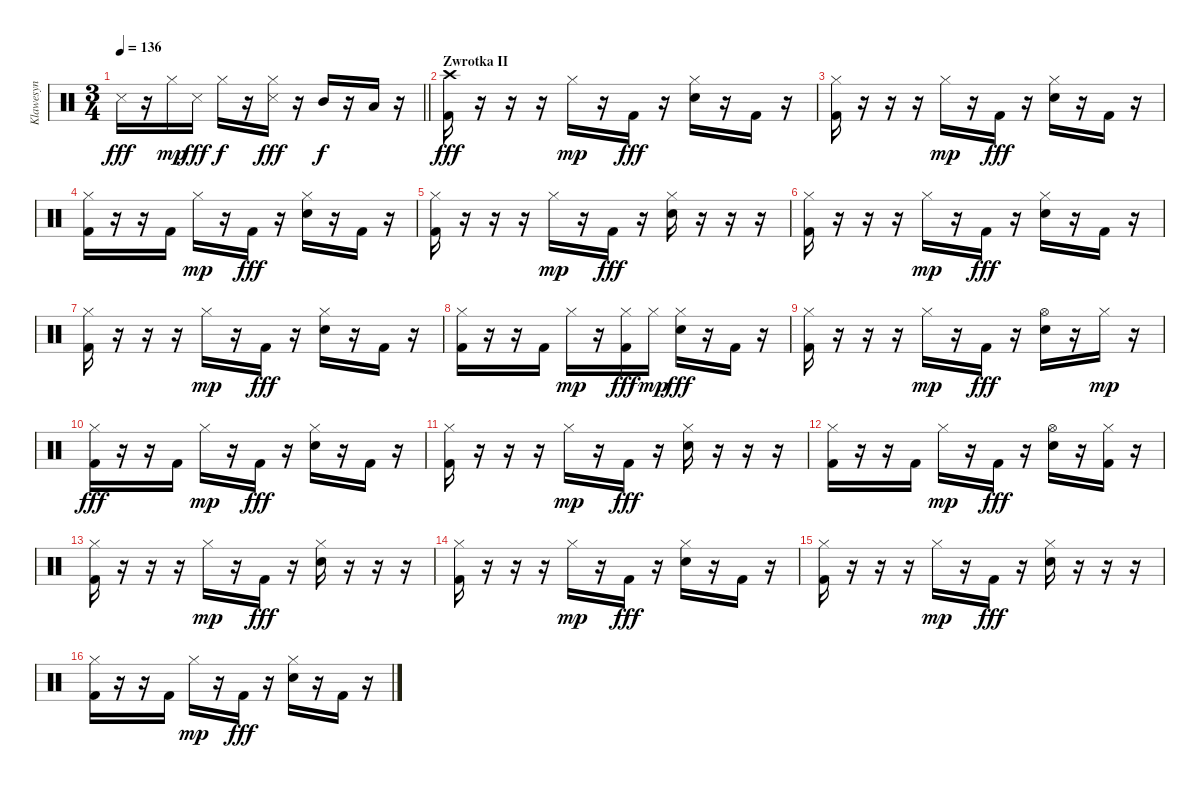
\track ("Klawesyn" "Klawesyn") {instrument percussion}
\staff {score}
\articulation defaults
\ts (3 4)
\tempo 136
\clef neutral
\barLineRight lightlight
\ks c "Snare (side stick) 3".16{dy fff}
r.16 "Hi-Hat (closed)".16{dy mp} "Snare (side stick) 3".16{dy fff} "Hi-Hat (closed)".16{dy f} r.16 ("Hi-Hat (closed)" "Snare (side stick) 3").16{dy fff} r.16 "Mid Tom (hit)".16{dy f} r.16 "Low Tom (hit)".16 r.16 |
\section ("" "Zwrotka II")
("Crash high (hit)" "Kick (hit) 2").16{dy fff} r.16 r.16 r.16 "Hi-Hat (closed)".16{dy mp} r.16 "Kick (hit) 2".16{dy fff} r.16 ("Hi-Hat (closed)" "Snare (hit) 2").16 r.16 "Kick (hit) 2".16 r.16 |
("Hi-Hat (closed)" "Kick (hit) 2").16 r.16 r.16 r.16 "Hi-Hat (closed)".16{dy mp} r.16 "Kick (hit) 2".16{dy fff} r.16 ("Hi-Hat (closed)" "Snare (hit) 2").16 r.16 "Kick (hit) 2".16 r.16 |
("Hi-Hat (closed)" "Kick (hit) 2").16 r.16 r.16 "Kick (hit) 2".16 "Hi-Hat (closed)".16{dy mp} r.16 "Kick (hit) 2".16{dy fff} r.16 ("Hi-Hat (closed)" "Snare (hit) 2").16 r.16 "Kick (hit) 2".16 r.16 |
("Hi-Hat (closed)" "Kick (hit) 2").16 r.16 r.16 r.16 "Hi-Hat (closed)".16{dy mp} r.16 "Kick (hit) 2".16{dy fff} r.16 ("Hi-Hat (closed)" "Snare (hit) 2").16 r.16 r.16 r.16 |
("Hi-Hat (closed)" "Kick (hit) 2").16 r.16 r.16 r.16 "Hi-Hat (closed)".16{dy mp} r.16 "Kick (hit) 2".16{dy fff} r.16 ("Hi-Hat (closed)" "Snare (hit) 2").16 r.16 "Kick (hit) 2".16 r.16 |
("Hi-Hat (closed)" "Kick (hit) 2").16 r.16 r.16 r.16 "Hi-Hat (closed)".16{dy mp} r.16 "Kick (hit) 2".16{dy fff} r.16 ("Hi-Hat (closed)" "Snare (hit) 2").16 r.16 "Kick (hit) 2".16 r.16 |
("Hi-Hat (closed)" "Kick (hit) 2").16 r.16 r.16 "Kick (hit) 2".16 "Hi-Hat (closed)".16{dy mp} r.16 ("Hi-Hat (closed)" "Kick (hit) 2").16{dy fff} "Hi-Hat (closed)".16{dy mp} ("Hi-Hat (closed)" "Snare (hit) 2").16{dy fff} r.16 "Kick (hit) 2".16 r.16 |
("Hi-Hat (closed)" "Kick (hit) 2").16 r.16 r.16 r.16 "Hi-Hat (closed)".16{dy mp} r.16 "Kick (hit) 2".16{dy fff} r.16 ("Hi-Hat (open)" "Snare (hit) 2").16 r.16 "Hi-Hat (closed)".16{dy mp} r.16 |
("Hi-Hat (closed)" "Kick (hit) 2").16{dy fff} r.16 r.16 "Kick (hit) 2".16 "Hi-Hat (closed)".16{dy mp} r.16 "Kick (hit) 2".16{dy fff} r.16 ("Hi-Hat (closed)" "Snare (hit) 2").16 r.16 "Kick (hit) 2".16 r.16 |
("Hi-Hat (closed)" "Kick (hit) 2").16 r.16 r.16 r.16 "Hi-Hat (closed)".16{dy mp} r.16 "Kick (hit) 2".16{dy fff} r.16 ("Hi-Hat (closed)" "Snare (hit) 2").16 r.16 r.16 r.16 |
("Hi-Hat (closed)" "Kick (hit) 2").16 r.16 r.16 "Kick (hit) 2".16 "Hi-Hat (closed)".16{dy mp} r.16 "Kick (hit) 2".16{dy fff} r.16 ("Hi-Hat (open)" "Snare (hit) 2").16 r.16 ("Hi-Hat (closed)" "Kick (hit) 2").16 r.16 |
("Hi-Hat (closed)" "Kick (hit) 2").16 r.16 r.16 r.16 "Hi-Hat (closed)".16{dy mp} r.16 "Kick (hit) 2".16{dy fff} r.16 ("Hi-Hat (closed)" "Snare (hit) 2").16 r.16 r.16 r.16 |
("Hi-Hat (closed)" "Kick (hit) 2").16 r.16 r.16 r.16 "Hi-Hat (closed)".16{dy mp} r.16 "Kick (hit) 2".16{dy fff} r.16 ("Hi-Hat (closed)" "Snare (hit) 2").16 r.16 "Kick (hit) 2".16 r.16 |
("Hi-Hat (closed)" "Kick (hit) 2").16 r.16 r.16 r.16 "Hi-Hat (closed)".16{dy mp} r.16 "Kick (hit) 2".16{dy fff} r.16 ("Hi-Hat (closed)" "Snare (hit) 2").16 r.16 r.16 r.16 |
("Hi-Hat (closed)" "Kick (hit) 2").16 r.16 r.16 "Kick (hit) 2".16 "Hi-Hat (closed)".16{dy mp} r.16 "Kick (hit) 2".16{dy fff} r.16 ("Hi-Hat (closed)" "Snare (hit) 2").16 r.16 "Kick (hit) 2".16 r.16
